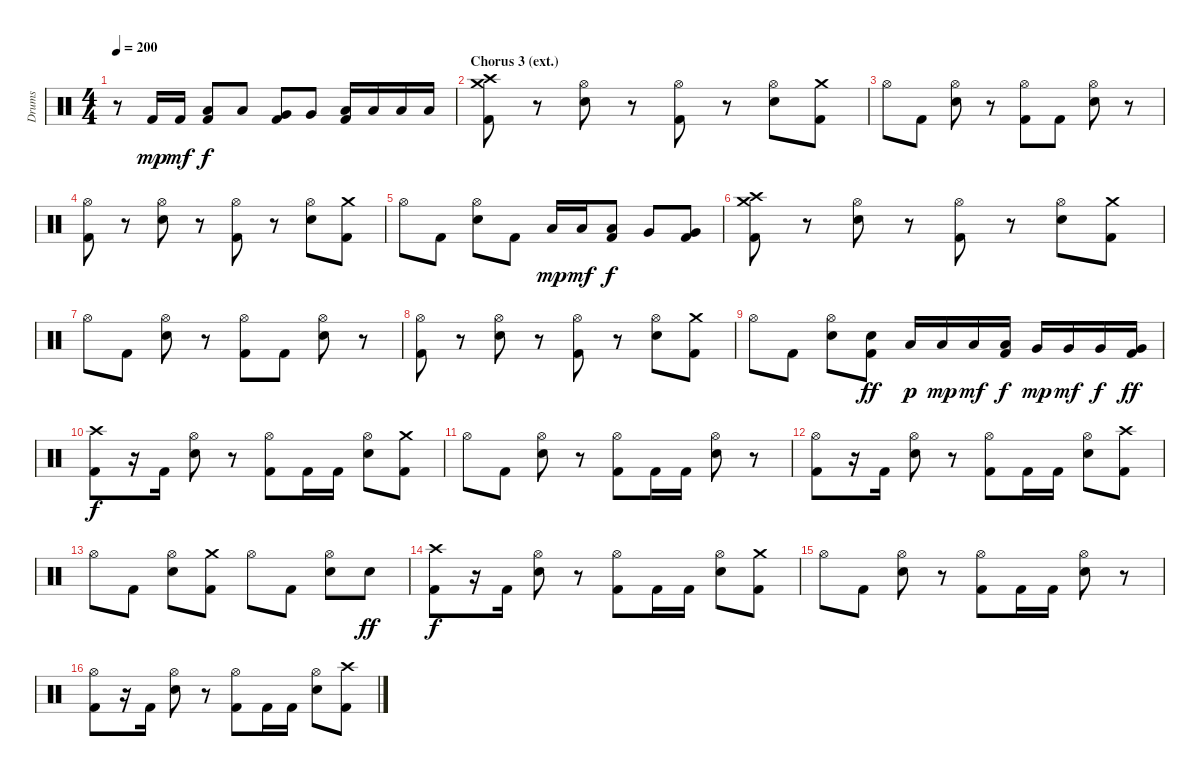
\track ("Drums" "Drums") {instrument percussion}
\staff {score}
\articulation defaults
\ts (4 4)
\tempo 200
\clef neutral
\ks c
r.8{dy f} "Kick (hit) 2".16{dy mp} "Kick (hit) 2".16{dy mf} ("Kick (hit) 2" "Low Floor Tom (hit)").8{dy f} "Low Floor Tom (hit)".8 ("Kick (hit) 2" "Very Low Tom (hit)").8 "Very Low Tom (hit)".8 ("Kick (hit) 2" "Low Tom (hit)").16 "Low Tom (hit)".16 "Low Tom (hit)".16 "Low Tom (hit)".16 |
\section ("" "Chorus 3 (ext.)")
("Kick (hit) 2" "Crash medium (hit)" "Crash high (hit)").8 r.8 ("Electric Snare (hit)" "Hi-Hat (open)").8 r.8 ("Kick (hit) 2" "Hi-Hat (open)").8 r.8 ("Electric Snare (hit)" "Hi-Hat (open)").8 ("Kick (hit) 2" "Crash medium (hit)").8 |
"Hi-Hat (open)".8 "Kick (hit) 2".8 ("Electric Snare (hit)" "Hi-Hat (open)").8 r.8 ("Kick (hit) 2" "Hi-Hat (open)").8 "Kick (hit) 2".8 ("Electric Snare (hit)" "Hi-Hat (open)").8 r.8 |
("Kick (hit) 2" "Hi-Hat (open)").8 r.8 ("Electric Snare (hit)" "Hi-Hat (open)").8 r.8 ("Kick (hit) 2" "Hi-Hat (open)").8 r.8 ("Electric Snare (hit)" "Hi-Hat (open)").8 ("Kick (hit) 2" "Crash medium (hit)").8 |
"Hi-Hat (open)".8 "Kick (hit) 2".8 ("Electric Snare (hit)" "Hi-Hat (open)").8 "Kick (hit) 2".8 "Low Tom (hit)".16{dy mp} "Low Tom (hit)".16{dy mf} ("Kick (hit) 2" "Low Tom (hit)").8{dy f} "Very Low Tom (hit)".8 ("Kick (hit) 2" "Very Low Tom (hit)").8 |
("Kick (hit) 2" "Crash medium (hit)" "Crash high (hit)").8 r.8 ("Electric Snare (hit)" "Hi-Hat (open)").8 r.8 ("Kick (hit) 2" "Hi-Hat (open)").8 r.8 ("Electric Snare (hit)" "Hi-Hat (open)").8 ("Kick (hit) 2" "Crash medium (hit)").8 |
"Hi-Hat (open)".8 "Kick (hit) 2".8 ("Electric Snare (hit)" "Hi-Hat (open)").8 r.8 ("Kick (hit) 2" "Hi-Hat (open)").8 "Kick (hit) 2".8 ("Electric Snare (hit)" "Hi-Hat (open)").8 r.8 |
("Kick (hit) 2" "Hi-Hat (open)").8 r.8 ("Electric Snare (hit)" "Hi-Hat (open)").8 r.8 ("Kick (hit) 2" "Hi-Hat (open)").8 r.8 ("Electric Snare (hit)" "Hi-Hat (open)").8 ("Kick (hit) 2" "Crash medium (hit)").8 |
"Hi-Hat (open)".8 "Kick (hit) 2".8 ("Electric Snare (hit)" "Hi-Hat (open)").8 ("Kick (hit) 2" "Electric Snare (hit)").8{dy ff} "Low Tom (hit)".16{dy p} "Low Tom (hit)".16{dy mp} "Low Tom (hit)".16{dy mf} ("Kick (hit) 2" "Low Tom (hit)").16{dy f} "Very Low Tom (hit)".16{dy mp} "Very Low Tom (hit)".16{dy mf} "Very Low Tom (hit)".16{dy f} ("Kick (hit) 2" "Very Low Tom (hit)").16{dy ff} |
("Kick (hit) 2" "Crash high (hit)").8{dy f} r.16 "Kick (hit) 2".16 ("Electric Snare (hit)" "Hi-Hat (open)").8 r.8 ("Kick (hit) 2" "Hi-Hat (open)").8 "Kick (hit) 2".16 "Kick (hit) 2".16 ("Electric Snare (hit)" "Hi-Hat (open)").8 ("Kick (hit) 2" "Crash medium (hit)").8 |
"Hi-Hat (open)".8 "Kick (hit) 2".8 ("Electric Snare (hit)" "Hi-Hat (open)").8 r.8 ("Kick (hit) 2" "Hi-Hat (open)").8 "Kick (hit) 2".16 "Kick (hit) 2".16 ("Electric Snare (hit)" "Hi-Hat (open)").8 r.8 |
("Kick (hit) 2" "Hi-Hat (open)").8 r.16 "Kick (hit) 2".16 ("Electric Snare (hit)" "Hi-Hat (open)").8 r.8 ("Kick (hit) 2" "Hi-Hat (open)").8 "Kick (hit) 2".16 "Kick (hit) 2".16 ("Electric Snare (hit)" "Hi-Hat (open)").8 ("Kick (hit) 2" "Crash high (hit)").8 |
"Hi-Hat (open)".8 "Kick (hit) 2".8 ("Electric Snare (hit)" "Hi-Hat (open)").8 ("Kick (hit) 2" "Crash medium (hit)").8 "Hi-Hat (open)".8 "Kick (hit) 2".8 ("Electric Snare (hit)" "Hi-Hat (open)").8 "Electric Snare (hit)".8{dy ff} |
("Kick (hit) 2" "Crash high (hit)").8{dy f} r.16 "Kick (hit) 2".16 ("Electric Snare (hit)" "Hi-Hat (open)").8 r.8 ("Kick (hit) 2" "Hi-Hat (open)").8 "Kick (hit) 2".16 "Kick (hit) 2".16 ("Electric Snare (hit)" "Hi-Hat (open)").8 ("Kick (hit) 2" "Crash medium (hit)").8 |
"Hi-Hat (open)".8 "Kick (hit) 2".8 ("Electric Snare (hit)" "Hi-Hat (open)").8 r.8 ("Kick (hit) 2" "Hi-Hat (open)").8 "Kick (hit) 2".16 "Kick (hit) 2".16 ("Electric Snare (hit)" "Hi-Hat (open)").8 r.8 |
("Kick (hit) 2" "Hi-Hat (open)").8 r.16 "Kick (hit) 2".16 ("Electric Snare (hit)" "Hi-Hat (open)").8 r.8 ("Kick (hit) 2" "Hi-Hat (open)").8 "Kick (hit) 2".16 "Kick (hit) 2".16 ("Electric Snare (hit)" "Hi-Hat (open)").8 ("Kick (hit) 2" "Crash high (hit)").8
